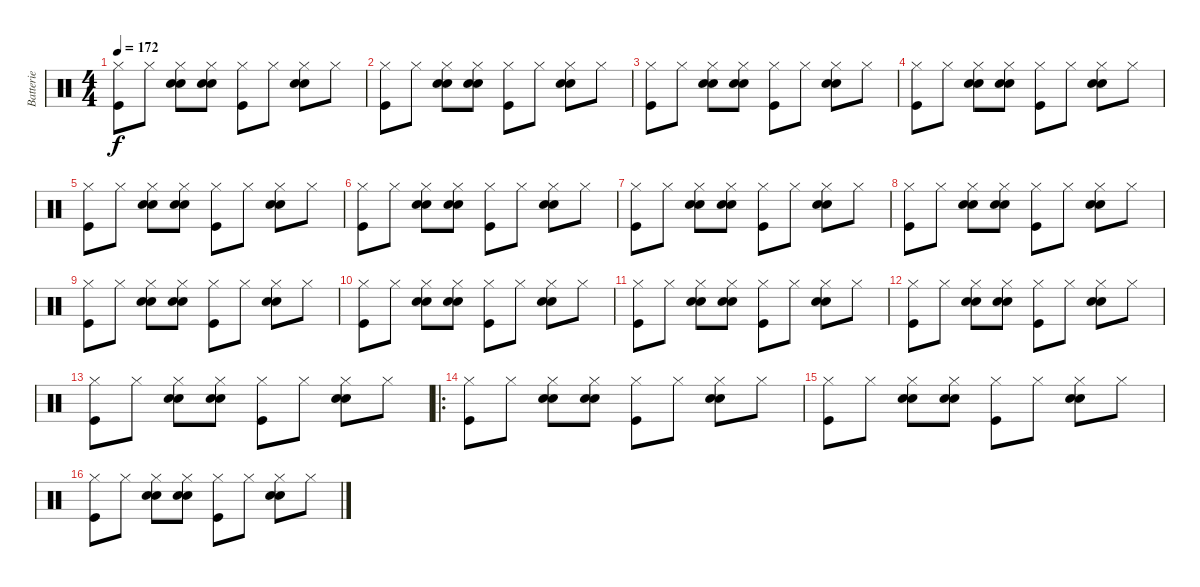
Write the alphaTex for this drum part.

\track ("Batterie" "Batterie") {instrument percussion}
\staff {score}
\articulation defaults
\ts (4 4)
\tempo 172
\clef neutral
\ks c
("Hi-Hat (closed)" "Kick (hit)").8{dy f} "Hi-Hat (closed)".8 ("Electric Snare (hit)" "Hi-Hat (closed)" "Snare (hit) 2").8 ("Electric Snare (hit)" "Hi-Hat (closed)" "Snare (hit) 2").8 ("Hi-Hat (closed)" "Kick (hit)").8 "Hi-Hat (closed)".8 ("Electric Snare (hit)" "Hi-Hat (closed)" "Snare (hit) 2").8 "Hi-Hat (closed)".8 |
("Hi-Hat (closed)" "Kick (hit)").8 "Hi-Hat (closed)".8 ("Electric Snare (hit)" "Hi-Hat (closed)" "Snare (hit) 2").8 ("Electric Snare (hit)" "Hi-Hat (closed)" "Snare (hit) 2").8 ("Hi-Hat (closed)" "Kick (hit)").8 "Hi-Hat (closed)".8 ("Electric Snare (hit)" "Hi-Hat (closed)" "Snare (hit) 2").8 "Hi-Hat (closed)".8 |
("Hi-Hat (closed)" "Kick (hit)").8 "Hi-Hat (closed)".8 ("Electric Snare (hit)" "Hi-Hat (closed)" "Snare (hit) 2").8 ("Electric Snare (hit)" "Hi-Hat (closed)" "Snare (hit) 2").8 ("Hi-Hat (closed)" "Kick (hit)").8 "Hi-Hat (closed)".8 ("Electric Snare (hit)" "Hi-Hat (closed)" "Snare (hit) 2").8 "Hi-Hat (closed)".8 |
("Hi-Hat (closed)" "Kick (hit)").8 "Hi-Hat (closed)".8 ("Electric Snare (hit)" "Hi-Hat (closed)" "Snare (hit) 2").8 ("Electric Snare (hit)" "Hi-Hat (closed)" "Snare (hit) 2").8 ("Hi-Hat (closed)" "Kick (hit)").8 "Hi-Hat (closed)".8 ("Electric Snare (hit)" "Hi-Hat (closed)" "Snare (hit) 2").8 "Hi-Hat (closed)".8 |
("Hi-Hat (closed)" "Kick (hit)").8 "Hi-Hat (closed)".8 ("Electric Snare (hit)" "Hi-Hat (closed)" "Snare (hit) 2").8 ("Electric Snare (hit)" "Hi-Hat (closed)" "Snare (hit) 2").8 ("Hi-Hat (closed)" "Kick (hit)").8 "Hi-Hat (closed)".8 ("Electric Snare (hit)" "Hi-Hat (closed)" "Snare (hit) 2").8 "Hi-Hat (closed)".8 |
("Hi-Hat (closed)" "Kick (hit)").8 "Hi-Hat (closed)".8 ("Electric Snare (hit)" "Hi-Hat (closed)" "Snare (hit) 2").8 ("Electric Snare (hit)" "Hi-Hat (closed)" "Snare (hit) 2").8 ("Hi-Hat (closed)" "Kick (hit)").8 "Hi-Hat (closed)".8 ("Electric Snare (hit)" "Hi-Hat (closed)" "Snare (hit) 2").8 "Hi-Hat (closed)".8 |
("Hi-Hat (closed)" "Kick (hit)").8 "Hi-Hat (closed)".8 ("Electric Snare (hit)" "Hi-Hat (closed)" "Snare (hit) 2").8 ("Electric Snare (hit)" "Hi-Hat (closed)" "Snare (hit) 2").8 ("Hi-Hat (closed)" "Kick (hit)").8 "Hi-Hat (closed)".8 ("Electric Snare (hit)" "Hi-Hat (closed)" "Snare (hit) 2").8 "Hi-Hat (closed)".8 |
("Hi-Hat (closed)" "Kick (hit)").8 "Hi-Hat (closed)".8 ("Electric Snare (hit)" "Hi-Hat (closed)" "Snare (hit) 2").8 ("Electric Snare (hit)" "Hi-Hat (closed)" "Snare (hit) 2").8 ("Hi-Hat (closed)" "Kick (hit)").8 "Hi-Hat (closed)".8 ("Electric Snare (hit)" "Hi-Hat (closed)" "Snare (hit) 2").8 "Hi-Hat (closed)".8 |
("Hi-Hat (closed)" "Kick (hit)").8 "Hi-Hat (closed)".8 ("Electric Snare (hit)" "Hi-Hat (closed)" "Snare (hit) 2").8 ("Electric Snare (hit)" "Hi-Hat (closed)" "Snare (hit) 2").8 ("Hi-Hat (closed)" "Kick (hit)").8 "Hi-Hat (closed)".8 ("Electric Snare (hit)" "Hi-Hat (closed)" "Snare (hit) 2").8 "Hi-Hat (closed)".8 |
("Hi-Hat (closed)" "Kick (hit)").8 "Hi-Hat (closed)".8 ("Electric Snare (hit)" "Hi-Hat (closed)" "Snare (hit) 2").8 ("Electric Snare (hit)" "Hi-Hat (closed)" "Snare (hit) 2").8 ("Hi-Hat (closed)" "Kick (hit)").8 "Hi-Hat (closed)".8 ("Electric Snare (hit)" "Hi-Hat (closed)" "Snare (hit) 2").8 "Hi-Hat (closed)".8 |
("Hi-Hat (closed)" "Kick (hit)").8 "Hi-Hat (closed)".8 ("Electric Snare (hit)" "Hi-Hat (closed)" "Snare (hit) 2").8 ("Electric Snare (hit)" "Hi-Hat (closed)" "Snare (hit) 2").8 ("Hi-Hat (closed)" "Kick (hit)").8 "Hi-Hat (closed)".8 ("Electric Snare (hit)" "Hi-Hat (closed)" "Snare (hit) 2").8 "Hi-Hat (closed)".8 |
("Hi-Hat (closed)" "Kick (hit)").8 "Hi-Hat (closed)".8 ("Electric Snare (hit)" "Hi-Hat (closed)" "Snare (hit) 2").8 ("Electric Snare (hit)" "Hi-Hat (closed)" "Snare (hit) 2").8 ("Hi-Hat (closed)" "Kick (hit)").8 "Hi-Hat (closed)".8 ("Electric Snare (hit)" "Hi-Hat (closed)" "Snare (hit) 2").8 "Hi-Hat (closed)".8 |
("Hi-Hat (closed)" "Kick (hit)").8 "Hi-Hat (closed)".8 ("Electric Snare (hit)" "Hi-Hat (closed)" "Snare (hit) 2").8 ("Electric Snare (hit)" "Hi-Hat (closed)" "Snare (hit) 2").8 ("Hi-Hat (closed)" "Kick (hit)").8 "Hi-Hat (closed)".8 ("Electric Snare (hit)" "Hi-Hat (closed)" "Snare (hit) 2").8 "Hi-Hat (closed)".8 |
\ro
("Hi-Hat (closed)" "Kick (hit)").8 "Hi-Hat (closed)".8 ("Electric Snare (hit)" "Hi-Hat (closed)" "Snare (hit) 2").8 ("Electric Snare (hit)" "Hi-Hat (closed)" "Snare (hit) 2").8 ("Hi-Hat (closed)" "Kick (hit)").8 "Hi-Hat (closed)".8 ("Electric Snare (hit)" "Hi-Hat (closed)" "Snare (hit) 2").8 "Hi-Hat (closed)".8 |
("Hi-Hat (closed)" "Kick (hit)").8 "Hi-Hat (closed)".8 ("Electric Snare (hit)" "Hi-Hat (closed)" "Snare (hit) 2").8 ("Electric Snare (hit)" "Hi-Hat (closed)" "Snare (hit) 2").8 ("Hi-Hat (closed)" "Kick (hit)").8 "Hi-Hat (closed)".8 ("Electric Snare (hit)" "Hi-Hat (closed)" "Snare (hit) 2").8 "Hi-Hat (closed)".8 |
("Hi-Hat (closed)" "Kick (hit)").8 "Hi-Hat (closed)".8 ("Electric Snare (hit)" "Hi-Hat (closed)" "Snare (hit) 2").8 ("Electric Snare (hit)" "Hi-Hat (closed)" "Snare (hit) 2").8 ("Hi-Hat (closed)" "Kick (hit)").8 "Hi-Hat (closed)".8 ("Electric Snare (hit)" "Hi-Hat (closed)" "Snare (hit) 2").8 "Hi-Hat (closed)".8
